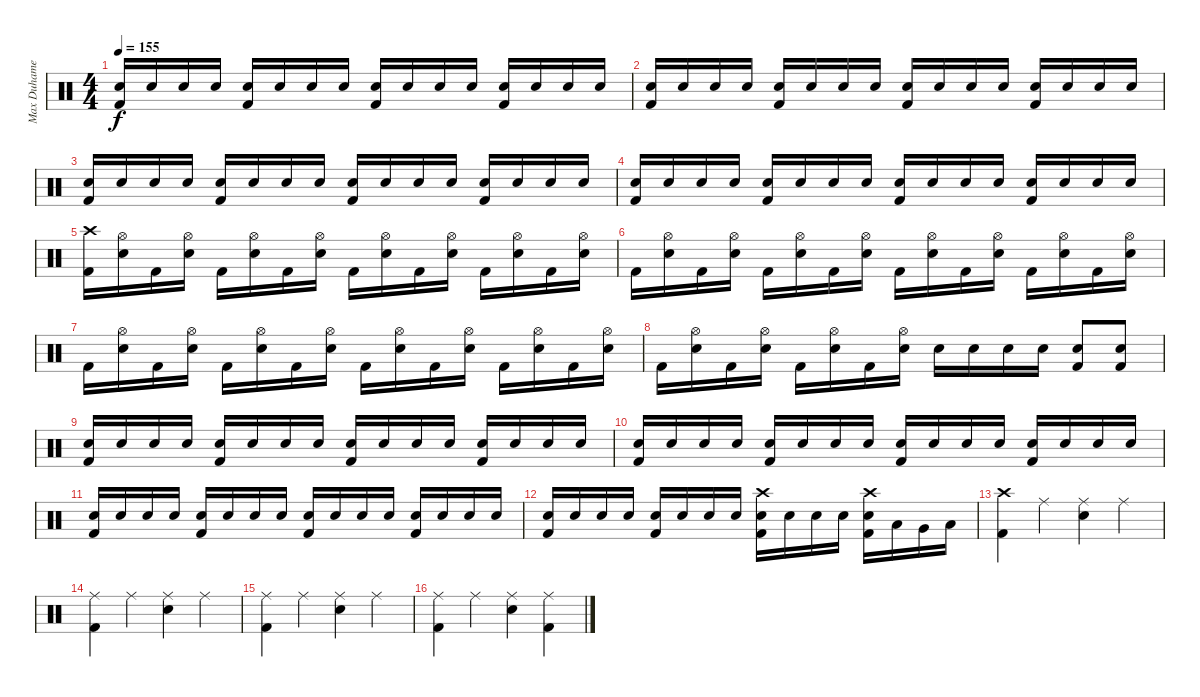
\track ("Max Duhamel (Drums)" "Max Duhame") {instrument percussion}
\staff {score}
\articulation defaults
\ts (4 4)
\tempo 155
\clef neutral
\ks c
("Electric Snare (hit)" "Kick (hit) 2").16{dy f} "Electric Snare (hit)".16 "Electric Snare (hit)".16 "Electric Snare (hit)".16 ("Electric Snare (hit)" "Kick (hit) 2").16 "Electric Snare (hit)".16 "Electric Snare (hit)".16 "Electric Snare (hit)".16 ("Electric Snare (hit)" "Kick (hit) 2").16 "Electric Snare (hit)".16 "Electric Snare (hit)".16 "Electric Snare (hit)".16 ("Electric Snare (hit)" "Kick (hit) 2").16 "Electric Snare (hit)".16 "Electric Snare (hit)".16 "Electric Snare (hit)".16 |
("Electric Snare (hit)" "Kick (hit) 2").16 "Electric Snare (hit)".16 "Electric Snare (hit)".16 "Electric Snare (hit)".16 ("Electric Snare (hit)" "Kick (hit) 2").16 "Electric Snare (hit)".16 "Electric Snare (hit)".16 "Electric Snare (hit)".16 ("Electric Snare (hit)" "Kick (hit) 2").16 "Electric Snare (hit)".16 "Electric Snare (hit)".16 "Electric Snare (hit)".16 ("Electric Snare (hit)" "Kick (hit) 2").16 "Electric Snare (hit)".16 "Electric Snare (hit)".16 "Electric Snare (hit)".16 |
("Electric Snare (hit)" "Kick (hit) 2").16 "Electric Snare (hit)".16 "Electric Snare (hit)".16 "Electric Snare (hit)".16 ("Electric Snare (hit)" "Kick (hit) 2").16 "Electric Snare (hit)".16 "Electric Snare (hit)".16 "Electric Snare (hit)".16 ("Electric Snare (hit)" "Kick (hit) 2").16 "Electric Snare (hit)".16 "Electric Snare (hit)".16 "Electric Snare (hit)".16 ("Electric Snare (hit)" "Kick (hit) 2").16 "Electric Snare (hit)".16 "Electric Snare (hit)".16 "Electric Snare (hit)".16 |
("Electric Snare (hit)" "Kick (hit) 2").16 "Electric Snare (hit)".16 "Electric Snare (hit)".16 "Electric Snare (hit)".16 ("Electric Snare (hit)" "Kick (hit) 2").16 "Electric Snare (hit)".16 "Electric Snare (hit)".16 "Electric Snare (hit)".16 ("Electric Snare (hit)" "Kick (hit) 2").16 "Electric Snare (hit)".16 "Electric Snare (hit)".16 "Electric Snare (hit)".16 ("Electric Snare (hit)" "Kick (hit) 2").16 "Electric Snare (hit)".16 "Electric Snare (hit)".16 "Electric Snare (hit)".16 |
("Crash high (hit)" "Kick (hit) 2").16 ("Hi-Hat (open)" "Electric Snare (hit)").16 "Kick (hit) 2".16 ("Hi-Hat (open)" "Electric Snare (hit)").16 "Kick (hit) 2".16 ("Hi-Hat (open)" "Electric Snare (hit)").16 "Kick (hit) 2".16 ("Hi-Hat (open)" "Electric Snare (hit)").16 "Kick (hit) 2".16 ("Hi-Hat (open)" "Electric Snare (hit)").16 "Kick (hit) 2".16 ("Hi-Hat (open)" "Electric Snare (hit)").16 "Kick (hit) 2".16 ("Hi-Hat (open)" "Electric Snare (hit)").16 "Kick (hit) 2".16 ("Hi-Hat (open)" "Electric Snare (hit)").16 |
"Kick (hit) 2".16 ("Hi-Hat (open)" "Electric Snare (hit)").16 "Kick (hit) 2".16 ("Hi-Hat (open)" "Electric Snare (hit)").16 "Kick (hit) 2".16 ("Hi-Hat (open)" "Electric Snare (hit)").16 "Kick (hit) 2".16 ("Hi-Hat (open)" "Electric Snare (hit)").16 "Kick (hit) 2".16 ("Hi-Hat (open)" "Electric Snare (hit)").16 "Kick (hit) 2".16 ("Hi-Hat (open)" "Electric Snare (hit)").16 "Kick (hit) 2".16 ("Hi-Hat (open)" "Electric Snare (hit)").16 "Kick (hit) 2".16 ("Hi-Hat (open)" "Electric Snare (hit)").16 |
"Kick (hit) 2".16 ("Hi-Hat (open)" "Electric Snare (hit)").16 "Kick (hit) 2".16 ("Hi-Hat (open)" "Electric Snare (hit)").16 "Kick (hit) 2".16 ("Hi-Hat (open)" "Electric Snare (hit)").16 "Kick (hit) 2".16 ("Hi-Hat (open)" "Electric Snare (hit)").16 "Kick (hit) 2".16 ("Hi-Hat (open)" "Electric Snare (hit)").16 "Kick (hit) 2".16 ("Hi-Hat (open)" "Electric Snare (hit)").16 "Kick (hit) 2".16 ("Hi-Hat (open)" "Electric Snare (hit)").16 "Kick (hit) 2".16 ("Hi-Hat (open)" "Electric Snare (hit)").16 |
"Kick (hit) 2".16 ("Hi-Hat (open)" "Electric Snare (hit)").16 "Kick (hit) 2".16 ("Hi-Hat (open)" "Electric Snare (hit)").16 "Kick (hit) 2".16 ("Hi-Hat (open)" "Electric Snare (hit)").16 "Kick (hit) 2".16 ("Hi-Hat (open)" "Electric Snare (hit)").16 "Electric Snare (hit)".16 "Electric Snare (hit)".16 "Electric Snare (hit)".16 "Electric Snare (hit)".16 ("Electric Snare (hit)" "Kick (hit) 2").8 ("Electric Snare (hit)" "Kick (hit) 2").8 |
("Electric Snare (hit)" "Kick (hit) 2").16 "Electric Snare (hit)".16 "Electric Snare (hit)".16 "Electric Snare (hit)".16 ("Electric Snare (hit)" "Kick (hit) 2").16 "Electric Snare (hit)".16 "Electric Snare (hit)".16 "Electric Snare (hit)".16 ("Electric Snare (hit)" "Kick (hit) 2").16 "Electric Snare (hit)".16 "Electric Snare (hit)".16 "Electric Snare (hit)".16 ("Electric Snare (hit)" "Kick (hit) 2").16 "Electric Snare (hit)".16 "Electric Snare (hit)".16 "Electric Snare (hit)".16 |
("Electric Snare (hit)" "Kick (hit) 2").16 "Electric Snare (hit)".16 "Electric Snare (hit)".16 "Electric Snare (hit)".16 ("Electric Snare (hit)" "Kick (hit) 2").16 "Electric Snare (hit)".16 "Electric Snare (hit)".16 "Electric Snare (hit)".16 ("Electric Snare (hit)" "Kick (hit) 2").16 "Electric Snare (hit)".16 "Electric Snare (hit)".16 "Electric Snare (hit)".16 ("Electric Snare (hit)" "Kick (hit) 2").16 "Electric Snare (hit)".16 "Electric Snare (hit)".16 "Electric Snare (hit)".16 |
("Electric Snare (hit)" "Kick (hit) 2").16 "Electric Snare (hit)".16 "Electric Snare (hit)".16 "Electric Snare (hit)".16 ("Electric Snare (hit)" "Kick (hit) 2").16 "Electric Snare (hit)".16 "Electric Snare (hit)".16 "Electric Snare (hit)".16 ("Electric Snare (hit)" "Kick (hit) 2").16 "Electric Snare (hit)".16 "Electric Snare (hit)".16 "Electric Snare (hit)".16 ("Electric Snare (hit)" "Kick (hit) 2").16 "Electric Snare (hit)".16 "Electric Snare (hit)".16 "Electric Snare (hit)".16 |
("Electric Snare (hit)" "Kick (hit) 2").16 "Electric Snare (hit)".16 "Electric Snare (hit)".16 "Electric Snare (hit)".16 ("Electric Snare (hit)" "Kick (hit) 2").16 "Electric Snare (hit)".16 "Electric Snare (hit)".16 "Electric Snare (hit)".16 ("Crash high (hit)" "Electric Snare (hit)" "Kick (hit) 2").16 "Electric Snare (hit)".16 "Electric Snare (hit)".16 "Electric Snare (hit)".16 ("Crash high (hit)" "Electric Snare (hit)" "Kick (hit) 2").16 "Low Tom (hit)".16 "Very Low Tom (hit)".16 "Low Floor Tom (hit)".16 |
("Crash high (hit)" "Kick (hit) 2").4 "Ride (middle)".4 ("Ride (middle)" "Electric Snare (hit)").4 "Ride (middle)".4 |
("Ride (middle)" "Kick (hit) 2").4 "Ride (middle)".4 ("Ride (middle)" "Electric Snare (hit)").4 "Ride (middle)".4 |
("Ride (middle)" "Kick (hit) 2").4 "Ride (middle)".4 ("Ride (middle)" "Electric Snare (hit)").4 "Ride (middle)".4 |
("Ride (middle)" "Kick (hit) 2").4 "Ride (middle)".4 ("Ride (middle)" "Electric Snare (hit)").4 ("Ride (middle)" "Kick (hit) 2").4
